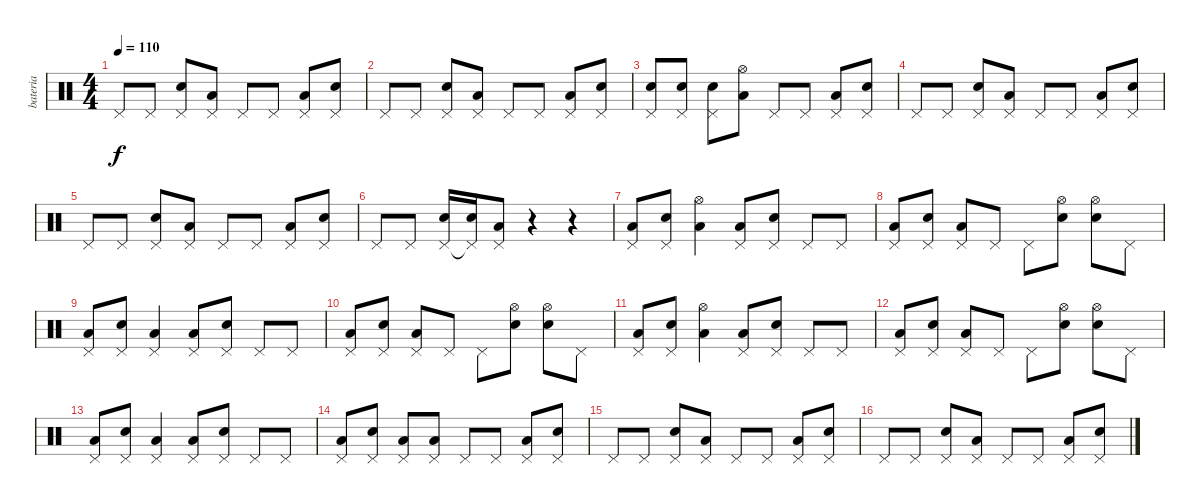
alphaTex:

\track ("bateria" "bateria") {instrument percussion}
\staff {score}
\articulation defaults
\ts (4 4)
\tempo 110
\clef neutral
\ks c "Pedal Hi-Hat (hit)".8{dy f} "Pedal Hi-Hat (hit)".8
("Pedal Hi-Hat (hit)" "Electric Snare (hit)").8 ("Pedal Hi-Hat (hit)" "Low Floor Tom (hit)").8 "Pedal Hi-Hat (hit)".8 "Pedal Hi-Hat (hit)".8 ("Pedal Hi-Hat (hit)" "Low Floor Tom (hit)").8 ("Pedal Hi-Hat (hit)" "Electric Snare (hit)").8 |
"Pedal Hi-Hat (hit)".8 "Pedal Hi-Hat (hit)".8 ("Pedal Hi-Hat (hit)" "Electric Snare (hit)").8 ("Pedal Hi-Hat (hit)" "Low Floor Tom (hit)").8 "Pedal Hi-Hat (hit)".8 "Pedal Hi-Hat (hit)".8 ("Pedal Hi-Hat (hit)" "Low Floor Tom (hit)").8 ("Pedal Hi-Hat (hit)" "Electric Snare (hit)").8 |
("Pedal Hi-Hat (hit)" "Electric Snare (hit)").8 ("Pedal Hi-Hat (hit)" "Electric Snare (hit)").8 ("Pedal Hi-Hat (hit)" "Electric Snare (hit)").8 ("Hi-Hat (open)" "Low Floor Tom (hit)").8 "Pedal Hi-Hat (hit)".8 "Pedal Hi-Hat (hit)".8 ("Pedal Hi-Hat (hit)" "Low Floor Tom (hit)").8 ("Pedal Hi-Hat (hit)" "Electric Snare (hit)").8 |
"Pedal Hi-Hat (hit)".8 "Pedal Hi-Hat (hit)".8 ("Pedal Hi-Hat (hit)" "Electric Snare (hit)").8 ("Pedal Hi-Hat (hit)" "Low Floor Tom (hit)").8 "Pedal Hi-Hat (hit)".8 "Pedal Hi-Hat (hit)".8 ("Pedal Hi-Hat (hit)" "Low Floor Tom (hit)").8 ("Pedal Hi-Hat (hit)" "Electric Snare (hit)").8 |
"Pedal Hi-Hat (hit)".8 "Pedal Hi-Hat (hit)".8 ("Pedal Hi-Hat (hit)" "Electric Snare (hit)").8 ("Pedal Hi-Hat (hit)" "Low Floor Tom (hit)").8 "Pedal Hi-Hat (hit)".8 "Pedal Hi-Hat (hit)".8 ("Pedal Hi-Hat (hit)" "Low Floor Tom (hit)").8 ("Pedal Hi-Hat (hit)" "Electric Snare (hit)").8 |
"Pedal Hi-Hat (hit)".8 "Pedal Hi-Hat (hit)".8 ("Pedal Hi-Hat (hit)" "Electric Snare (hit)").16 ("Pedal Hi-Hat (hit)"{t} "Electric Snare (hit)").16 ("Pedal Hi-Hat (hit)" "Low Floor Tom (hit)").8 r.4 r.4 |
("Pedal Hi-Hat (hit)" "Low Floor Tom (hit)").8 ("Pedal Hi-Hat (hit)" "Electric Snare (hit)").8 ("Hi-Hat (open)" "Low Floor Tom (hit)").4 ("Pedal Hi-Hat (hit)" "Low Floor Tom (hit)").8 ("Pedal Hi-Hat (hit)" "Electric Snare (hit)").8 "Pedal Hi-Hat (hit)".8 "Pedal Hi-Hat (hit)".8 |
("Pedal Hi-Hat (hit)" "Low Floor Tom (hit)").8 ("Pedal Hi-Hat (hit)" "Electric Snare (hit)").8 ("Pedal Hi-Hat (hit)" "Low Floor Tom (hit)").8 "Pedal Hi-Hat (hit)".8 "Pedal Hi-Hat (hit)".8 ("Hi-Hat (open)" "Electric Snare (hit)").8 ("Hi-Hat (open)" "Electric Snare (hit)").8 "Pedal Hi-Hat (hit)".8 |
("Pedal Hi-Hat (hit)" "Low Floor Tom (hit)").8 ("Pedal Hi-Hat (hit)" "Electric Snare (hit)").8 ("Pedal Hi-Hat (hit)" "Low Floor Tom (hit)").4 ("Pedal Hi-Hat (hit)" "Low Floor Tom (hit)").8 ("Pedal Hi-Hat (hit)" "Electric Snare (hit)").8 "Pedal Hi-Hat (hit)".8 "Pedal Hi-Hat (hit)".8 |
("Pedal Hi-Hat (hit)" "Low Floor Tom (hit)").8 ("Pedal Hi-Hat (hit)" "Electric Snare (hit)").8 ("Pedal Hi-Hat (hit)" "Low Floor Tom (hit)").8 "Pedal Hi-Hat (hit)".8 "Pedal Hi-Hat (hit)".8 ("Hi-Hat (open)" "Electric Snare (hit)").8 ("Hi-Hat (open)" "Electric Snare (hit)").8 "Pedal Hi-Hat (hit)".8 |
("Pedal Hi-Hat (hit)" "Low Floor Tom (hit)").8 ("Pedal Hi-Hat (hit)" "Electric Snare (hit)").8 ("Hi-Hat (open)" "Low Floor Tom (hit)").4 ("Pedal Hi-Hat (hit)" "Low Floor Tom (hit)").8 ("Pedal Hi-Hat (hit)" "Electric Snare (hit)").8 "Pedal Hi-Hat (hit)".8 "Pedal Hi-Hat (hit)".8 |
("Pedal Hi-Hat (hit)" "Low Floor Tom (hit)").8 ("Pedal Hi-Hat (hit)" "Electric Snare (hit)").8 ("Pedal Hi-Hat (hit)" "Low Floor Tom (hit)").8 "Pedal Hi-Hat (hit)".8 "Pedal Hi-Hat (hit)".8 ("Hi-Hat (open)" "Electric Snare (hit)").8 ("Hi-Hat (open)" "Electric Snare (hit)").8 "Pedal Hi-Hat (hit)".8 |
("Pedal Hi-Hat (hit)" "Low Floor Tom (hit)").8 ("Pedal Hi-Hat (hit)" "Electric Snare (hit)").8 ("Pedal Hi-Hat (hit)" "Low Floor Tom (hit)").4 ("Pedal Hi-Hat (hit)" "Low Floor Tom (hit)").8 ("Pedal Hi-Hat (hit)" "Electric Snare (hit)").8 "Pedal Hi-Hat (hit)".8 "Pedal Hi-Hat (hit)".8 |
("Pedal Hi-Hat (hit)" "Low Floor Tom (hit)").8 ("Pedal Hi-Hat (hit)" "Electric Snare (hit)").8 ("Pedal Hi-Hat (hit)" "Low Floor Tom (hit)").8 ("Pedal Hi-Hat (hit)" "Low Floor Tom (hit)").8 "Pedal Hi-Hat (hit)".8 "Pedal Hi-Hat (hit)".8 ("Pedal Hi-Hat (hit)" "Low Floor Tom (hit)").8 ("Pedal Hi-Hat (hit)" "Electric Snare (hit)").8 |
"Pedal Hi-Hat (hit)".8 "Pedal Hi-Hat (hit)".8 ("Pedal Hi-Hat (hit)" "Electric Snare (hit)").8 ("Pedal Hi-Hat (hit)" "Low Floor Tom (hit)").8 "Pedal Hi-Hat (hit)".8 "Pedal Hi-Hat (hit)".8 ("Pedal Hi-Hat (hit)" "Low Floor Tom (hit)").8 ("Pedal Hi-Hat (hit)" "Electric Snare (hit)").8 |
"Pedal Hi-Hat (hit)".8 "Pedal Hi-Hat (hit)".8 ("Pedal Hi-Hat (hit)" "Electric Snare (hit)").8 ("Pedal Hi-Hat (hit)" "Low Floor Tom (hit)").8 "Pedal Hi-Hat (hit)".8 "Pedal Hi-Hat (hit)".8 ("Pedal Hi-Hat (hit)" "Low Floor Tom (hit)").8 ("Pedal Hi-Hat (hit)" "Electric Snare (hit)").8
